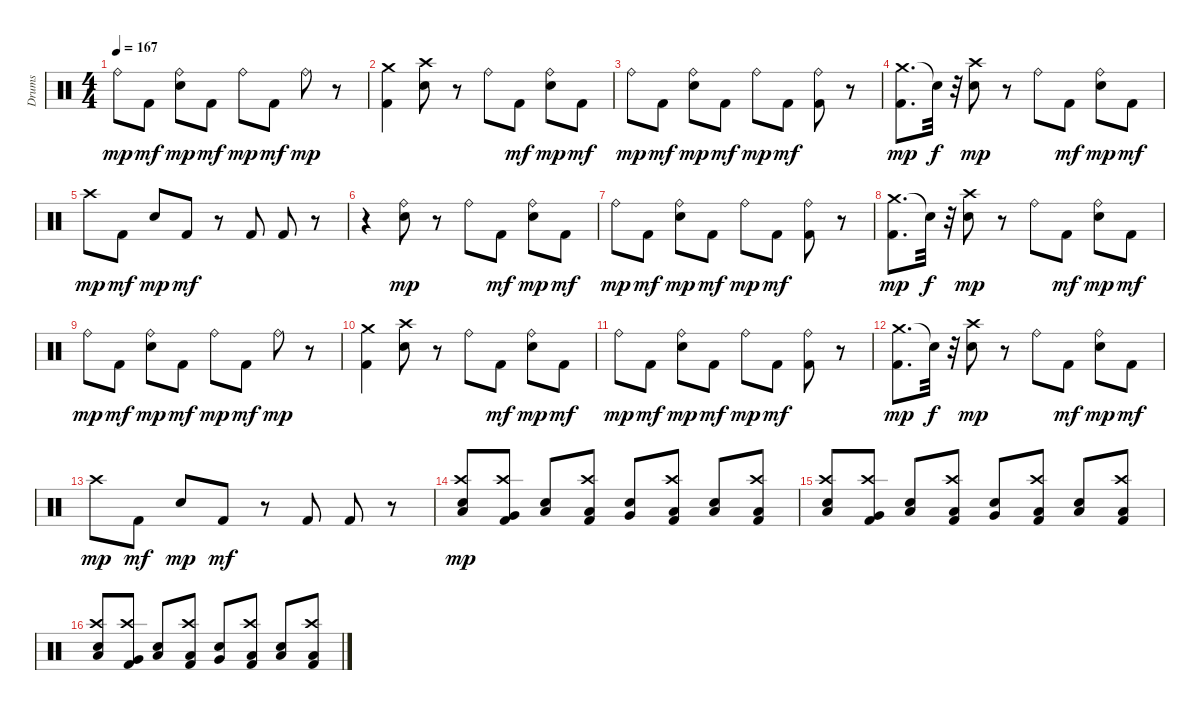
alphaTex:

\track ("Drums" "Drums") {instrument percussion}
\staff {score}
\articulation defaults
\ts (4 4)
\tempo 167
\clef neutral
\ks c "Ride (bell)".8{dy mp} "Kick (hit) 2".8{dy mf}
("Electric Snare (hit)" "Ride (bell)").8{dy mp} "Kick (hit) 2".8{dy mf} "Ride (bell)".8{dy mp} "Kick (hit) 2".8{dy mf} "Ride (bell)".8{dy mp} r.8 |
("Kick (hit) 2" "Crash medium (hit)").4 ("Electric Snare (hit)" "Crash high (hit)").8 r.8 "Ride (bell)".8 "Kick (hit) 2".8{dy mf} ("Electric Snare (hit)" "Ride (bell)").8{dy mp} "Kick (hit) 2".8{dy mf} |
"Ride (bell)".8{dy mp} "Kick (hit) 2".8{dy mf} ("Electric Snare (hit)" "Ride (bell)").8{dy mp} "Kick (hit) 2".8{dy mf} "Ride (bell)".8{dy mp} "Kick (hit) 2".8{dy mf} ("Ride (bell)" "Kick (hit) 2").8 r.8 |
("Crash medium (hit)" "Kick (hit) 2").8{d dy mp} "Snare (hit)"{t}.32{dy f} r.32 ("Electric Snare (hit)" "Crash high (hit)").8{dy mp} r.8 "Ride (bell)".8 "Kick (hit) 2".8{dy mf} ("Electric Snare (hit)" "Ride (bell)").8{dy mp} "Kick (hit) 2".8{dy mf} |
"Crash high (hit)".8{dy mp} "Kick (hit) 2".8{dy mf} "Electric Snare (hit)".8{dy mp} "Kick (hit) 2".8{dy mf} r.8 "Kick (hit) 2".8 "Kick (hit) 2".8 r.8 |
r.4 ("Electric Snare (hit)" "Ride (bell)").8{dy mp} r.8 "Ride (bell)".8 "Kick (hit) 2".8{dy mf} ("Electric Snare (hit)" "Ride (bell)").8{dy mp} "Kick (hit) 2".8{dy mf} |
"Ride (bell)".8{dy mp} "Kick (hit) 2".8{dy mf} ("Electric Snare (hit)" "Ride (bell)").8{dy mp} "Kick (hit) 2".8{dy mf} "Ride (bell)".8{dy mp} "Kick (hit) 2".8{dy mf} ("Ride (bell)" "Kick (hit) 2").8 r.8 |
("Crash medium (hit)" "Kick (hit) 2").8{d dy mp} "Snare (hit)"{t}.32{dy f} r.32 ("Electric Snare (hit)" "Crash high (hit)").8{dy mp} r.8 "Ride (bell)".8 "Kick (hit) 2".8{dy mf} ("Electric Snare (hit)" "Ride (bell)").8{dy mp} "Kick (hit) 2".8{dy mf} |
"Ride (bell)".8{dy mp} "Kick (hit) 2".8{dy mf} ("Electric Snare (hit)" "Ride (bell)").8{dy mp} "Kick (hit) 2".8{dy mf} "Ride (bell)".8{dy mp} "Kick (hit) 2".8{dy mf} "Ride (bell)".8{dy mp} r.8 |
("Kick (hit) 2" "Crash medium (hit)").4 ("Electric Snare (hit)" "Crash high (hit)").8 r.8 "Ride (bell)".8 "Kick (hit) 2".8{dy mf} ("Electric Snare (hit)" "Ride (bell)").8{dy mp} "Kick (hit) 2".8{dy mf} |
"Ride (bell)".8{dy mp} "Kick (hit) 2".8{dy mf} ("Electric Snare (hit)" "Ride (bell)").8{dy mp} "Kick (hit) 2".8{dy mf} "Ride (bell)".8{dy mp} "Kick (hit) 2".8{dy mf} ("Ride (bell)" "Kick (hit) 2").8 r.8 |
("Crash medium (hit)" "Kick (hit) 2").8{d dy mp} "Snare (hit)"{t}.32{dy f} r.32 ("Electric Snare (hit)" "Crash high (hit)").8{dy mp} r.8 "Ride (bell)".8 "Kick (hit) 2".8{dy mf} ("Electric Snare (hit)" "Ride (bell)").8{dy mp} "Kick (hit) 2".8{dy mf} |
"Crash high (hit)".8{dy mp} "Kick (hit) 2".8{dy mf} "Electric Snare (hit)".8{dy mp} "Kick (hit) 2".8{dy mf} r.8 "Kick (hit) 2".8 "Kick (hit) 2".8 r.8 |
("Crash high (hit)" "Electric Snare (hit)" "Low Floor Tom (hit)").8{dy mp} ("Kick (hit) 2" "Very Low Tom (hit)" "Crash high (hit)").8 ("Electric Snare (hit)" "Low Floor Tom (hit)").8 ("Low Floor Tom (hit)" "Kick (hit) 2" "Crash high (hit)").8 ("Electric Snare (hit)" "Very Low Tom (hit)").8 ("Kick (hit) 2" "Low Floor Tom (hit)" "Crash high (hit)").8 ("Electric Snare (hit)" "Low Floor Tom (hit)").8 ("Kick (hit) 2" "Low Floor Tom (hit)" "Crash high (hit)").8 |
("Crash high (hit)" "Electric Snare (hit)" "Low Floor Tom (hit)").8 ("Kick (hit) 2" "Very Low Tom (hit)" "Crash high (hit)").8 ("Electric Snare (hit)" "Low Floor Tom (hit)").8 ("Low Floor Tom (hit)" "Kick (hit) 2" "Crash high (hit)").8 ("Electric Snare (hit)" "Very Low Tom (hit)").8 ("Kick (hit) 2" "Low Floor Tom (hit)" "Crash high (hit)").8 ("Electric Snare (hit)" "Low Floor Tom (hit)").8 ("Kick (hit) 2" "Low Floor Tom (hit)" "Crash high (hit)").8 |
("Crash high (hit)" "Electric Snare (hit)" "Low Floor Tom (hit)").8 ("Kick (hit) 2" "Very Low Tom (hit)" "Crash high (hit)").8 ("Electric Snare (hit)" "Low Floor Tom (hit)").8 ("Low Floor Tom (hit)" "Kick (hit) 2" "Crash high (hit)").8 ("Electric Snare (hit)" "Very Low Tom (hit)").8 ("Kick (hit) 2" "Low Floor Tom (hit)" "Crash high (hit)").8 ("Electric Snare (hit)" "Low Floor Tom (hit)").8 ("Kick (hit) 2" "Low Floor Tom (hit)" "Crash high (hit)").8
